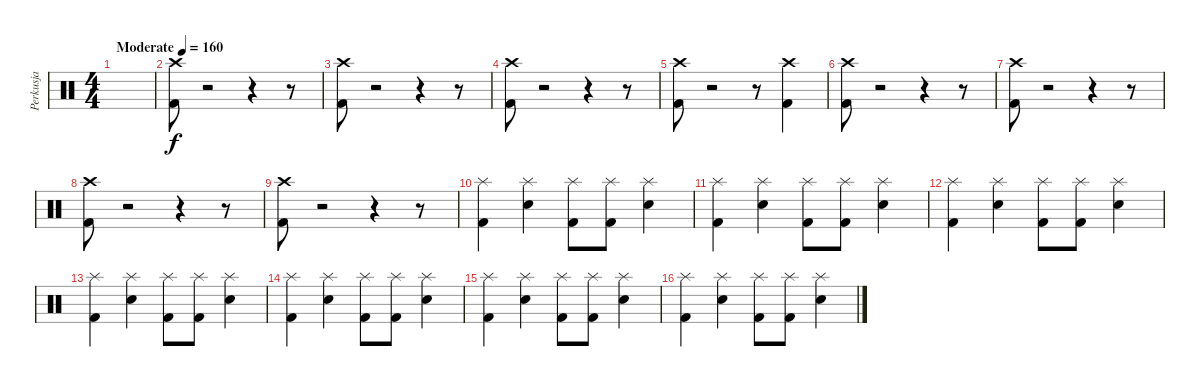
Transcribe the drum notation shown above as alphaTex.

\track ("Perkusja" "Perkusja") {instrument percussion}
\staff {score}
\articulation defaults
\ts (4 4)
\tempo (160 "Moderate")
\clef neutral
\ks c
|
("Crash high (hit)" "Kick (hit) 2").8 r.2 r.4 r.8 |
("Crash high (hit)" "Kick (hit) 2").8 r.2 r.4 r.8 |
("Crash high (hit)" "Kick (hit) 2").8 r.2 r.4 r.8 |
("Crash high (hit)" "Kick (hit) 2").8 r.2 r.8 ("Crash high (hit)" "Kick (hit) 2").4 |
("Crash high (hit)" "Kick (hit) 2").8 r.2 r.4 r.8 |
("Crash high (hit)" "Kick (hit) 2").8 r.2 r.4 r.8 |
("Crash high (hit)" "Kick (hit) 2").8 r.2 r.4 r.8 |
("Crash high (hit)" "Kick (hit) 2").8 r.2 r.4 r.8 |
("Splash (hit)" "Kick (hit) 2").4 ("Splash (hit)" "Snare (hit) 2").4 ("Splash (hit)" "Kick (hit) 2").8 ("Splash (hit)" "Kick (hit) 2").8 ("Splash (hit)" "Snare (hit) 2").4 |
("Splash (hit)" "Kick (hit) 2").4 ("Splash (hit)" "Snare (hit) 2").4 ("Splash (hit)" "Kick (hit) 2").8 ("Splash (hit)" "Kick (hit) 2").8 ("Splash (hit)" "Snare (hit) 2").4 |
("Splash (hit)" "Kick (hit) 2").4 ("Splash (hit)" "Snare (hit) 2").4 ("Splash (hit)" "Kick (hit) 2").8 ("Splash (hit)" "Kick (hit) 2").8 ("Splash (hit)" "Snare (hit) 2").4 |
("Splash (hit)" "Kick (hit) 2").4 ("Splash (hit)" "Snare (hit) 2").4 ("Splash (hit)" "Kick (hit) 2").8 ("Splash (hit)" "Kick (hit) 2").8 ("Splash (hit)" "Snare (hit) 2").4 |
("Splash (hit)" "Kick (hit) 2").4 ("Splash (hit)" "Snare (hit) 2").4 ("Splash (hit)" "Kick (hit) 2").8 ("Splash (hit)" "Kick (hit) 2").8 ("Splash (hit)" "Snare (hit) 2").4 |
("Splash (hit)" "Kick (hit) 2").4 ("Splash (hit)" "Snare (hit) 2").4 ("Splash (hit)" "Kick (hit) 2").8 ("Splash (hit)" "Kick (hit) 2").8 ("Splash (hit)" "Snare (hit) 2").4 |
("Splash (hit)" "Kick (hit) 2").4 ("Splash (hit)" "Snare (hit) 2").4 ("Splash (hit)" "Kick (hit) 2").8 ("Splash (hit)" "Kick (hit) 2").8 ("Splash (hit)" "Snare (hit) 2").4
